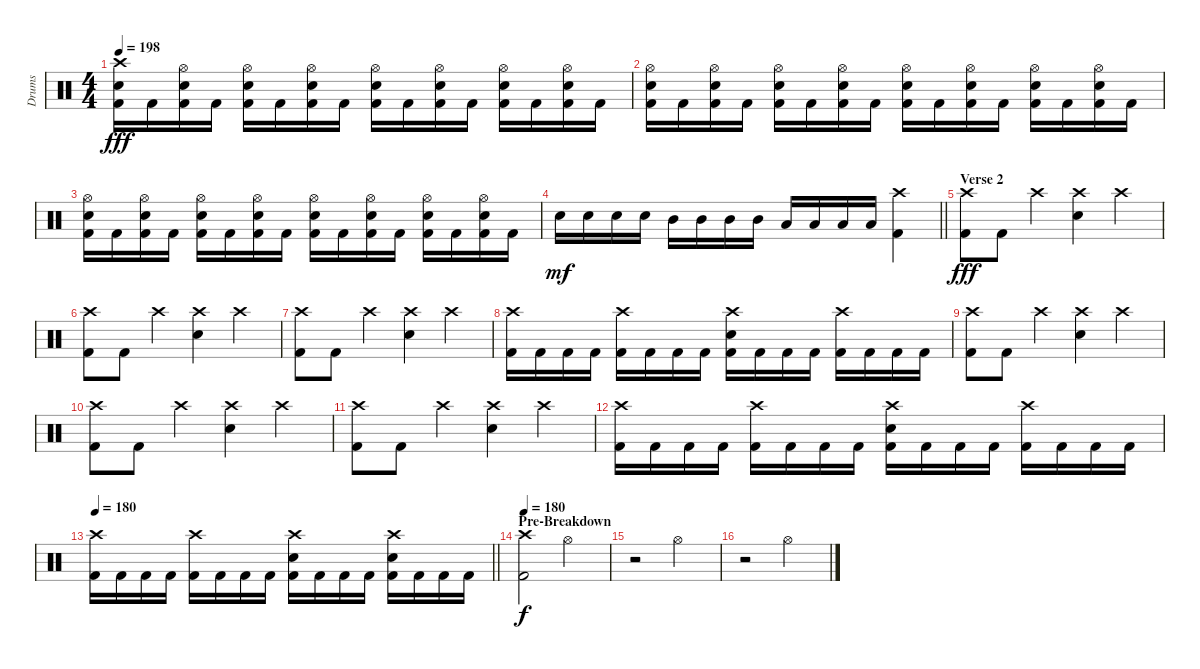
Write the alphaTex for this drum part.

\track ("Drums" "Drums") {instrument percussion}
\staff {score}
\articulation defaults
\ts (4 4)
\tempo 198
\clef neutral
\ks c
("Crash high (hit)" "Electric Snare (hit)" "Kick (hit) 2").16{dy fff} "Kick (hit) 2".16 ("Hi-Hat (open)" "Electric Snare (hit)" "Kick (hit) 2").16 "Kick (hit) 2".16 ("Hi-Hat (open)" "Electric Snare (hit)" "Kick (hit) 2").16 "Kick (hit) 2".16 ("Hi-Hat (open)" "Electric Snare (hit)" "Kick (hit) 2").16 "Kick (hit) 2".16 ("Hi-Hat (open)" "Electric Snare (hit)" "Kick (hit) 2").16 "Kick (hit) 2".16 ("Hi-Hat (open)" "Electric Snare (hit)" "Kick (hit) 2").16 "Kick (hit) 2".16 ("Hi-Hat (open)" "Electric Snare (hit)" "Kick (hit) 2").16 "Kick (hit) 2".16 ("Hi-Hat (open)" "Electric Snare (hit)" "Kick (hit) 2").16 "Kick (hit) 2".16 |
("Hi-Hat (open)" "Electric Snare (hit)" "Kick (hit) 2").16 "Kick (hit) 2".16 ("Hi-Hat (open)" "Electric Snare (hit)" "Kick (hit) 2").16 "Kick (hit) 2".16 ("Hi-Hat (open)" "Electric Snare (hit)" "Kick (hit) 2").16 "Kick (hit) 2".16 ("Hi-Hat (open)" "Electric Snare (hit)" "Kick (hit) 2").16 "Kick (hit) 2".16 ("Hi-Hat (open)" "Electric Snare (hit)" "Kick (hit) 2").16 "Kick (hit) 2".16 ("Hi-Hat (open)" "Electric Snare (hit)" "Kick (hit) 2").16 "Kick (hit) 2".16 ("Hi-Hat (open)" "Electric Snare (hit)" "Kick (hit) 2").16 "Kick (hit) 2".16 ("Hi-Hat (open)" "Electric Snare (hit)" "Kick (hit) 2").16 "Kick (hit) 2".16 |
("Hi-Hat (open)" "Electric Snare (hit)" "Kick (hit) 2").16 "Kick (hit) 2".16 ("Hi-Hat (open)" "Electric Snare (hit)" "Kick (hit) 2").16 "Kick (hit) 2".16 ("Hi-Hat (open)" "Electric Snare (hit)" "Kick (hit) 2").16 "Kick (hit) 2".16 ("Hi-Hat (open)" "Electric Snare (hit)" "Kick (hit) 2").16 "Kick (hit) 2".16 ("Hi-Hat (open)" "Electric Snare (hit)" "Kick (hit) 2").16 "Kick (hit) 2".16 ("Hi-Hat (open)" "Electric Snare (hit)" "Kick (hit) 2").16 "Kick (hit) 2".16 ("Hi-Hat (open)" "Electric Snare (hit)" "Kick (hit) 2").16 "Kick (hit) 2".16 ("Hi-Hat (open)" "Electric Snare (hit)" "Kick (hit) 2").16 "Kick (hit) 2".16 |
\barLineRight lightlight "Electric Snare (hit)".16{dy mf} "Electric Snare (hit)".16 "Electric Snare (hit)".16 "Electric Snare (hit)".16 "Mid Tom (hit)".16 "Mid Tom (hit)".16 "Mid Tom (hit)".16 "Mid Tom (hit)".16 "Low Tom (hit)".16 "Low Tom (hit)".16 "Low Tom (hit)".16 "Low Tom (hit)".16
("Crash high (hit)" "Kick (hit) 2").4 |
\section ("" "Verse 2")
("Crash high (hit)" "Kick (hit) 2").8{dy fff} "Kick (hit) 2".8 "Crash high (hit)".4 ("Crash high (hit)" "Electric Snare (hit)").4 "Crash high (hit)".4 |
("Crash high (hit)" "Kick (hit) 2").8 "Kick (hit) 2".8 "Crash high (hit)".4 ("Crash high (hit)" "Electric Snare (hit)").4 "Crash high (hit)".4 |
("Crash high (hit)" "Kick (hit) 2").8 "Kick (hit) 2".8 "Crash high (hit)".4 ("Crash high (hit)" "Electric Snare (hit)").4 "Crash high (hit)".4 |
("Crash high (hit)" "Kick (hit) 2").16 "Kick (hit) 2".16 "Kick (hit) 2".16 "Kick (hit) 2".16 ("Crash high (hit)" "Kick (hit) 2").16 "Kick (hit) 2".16 "Kick (hit) 2".16 "Kick (hit) 2".16 ("Crash high (hit)" "Electric Snare (hit)" "Kick (hit) 2").16 "Kick (hit) 2".16 "Kick (hit) 2".16 "Kick (hit) 2".16 ("Crash high (hit)" "Kick (hit) 2").16 "Kick (hit) 2".16 "Kick (hit) 2".16 "Kick (hit) 2".16 |
("Crash high (hit)" "Kick (hit) 2").8 "Kick (hit) 2".8 "Crash high (hit)".4 ("Crash high (hit)" "Electric Snare (hit)").4 "Crash high (hit)".4 |
("Crash high (hit)" "Kick (hit) 2").8 "Kick (hit) 2".8 "Crash high (hit)".4 ("Crash high (hit)" "Electric Snare (hit)").4 "Crash high (hit)".4 |
("Crash high (hit)" "Kick (hit) 2").8 "Kick (hit) 2".8 "Crash high (hit)".4 ("Crash high (hit)" "Electric Snare (hit)").4 "Crash high (hit)".4 |
("Crash high (hit)" "Kick (hit) 2").16 "Kick (hit) 2".16 "Kick (hit) 2".16 "Kick (hit) 2".16 ("Crash high (hit)" "Kick (hit) 2").16 "Kick (hit) 2".16 "Kick (hit) 2".16 "Kick (hit) 2".16 ("Crash high (hit)" "Electric Snare (hit)" "Kick (hit) 2").16 "Kick (hit) 2".16 "Kick (hit) 2".16 "Kick (hit) 2".16 ("Crash high (hit)" "Kick (hit) 2").16 "Kick (hit) 2".16 "Kick (hit) 2".16 "Kick (hit) 2".16 |
\tempo 180
\barLineRight lightlight
("Crash high (hit)" "Kick (hit) 2").16 "Kick (hit) 2".16 "Kick (hit) 2".16 "Kick (hit) 2".16 ("Crash high (hit)" "Kick (hit) 2").16 "Kick (hit) 2".16 "Kick (hit) 2".16 "Kick (hit) 2".16 ("Crash high (hit)" "Electric Snare (hit)" "Kick (hit) 2").16 "Kick (hit) 2".16 "Kick (hit) 2".16 "Kick (hit) 2".16 ("Crash high (hit)" "Electric Snare (hit)" "Kick (hit) 2").16 "Kick (hit) 2".16 "Kick (hit) 2".16 "Kick (hit) 2".16 |
\section ("" "Pre-Breakdown")
\tempo 180
("Crash high (hit)" "Kick (hit) 2").2{dy f} "Hi-Hat (open)".2 |
r.2 "Hi-Hat (open)".2 |
r.2 "Hi-Hat (open)".2
